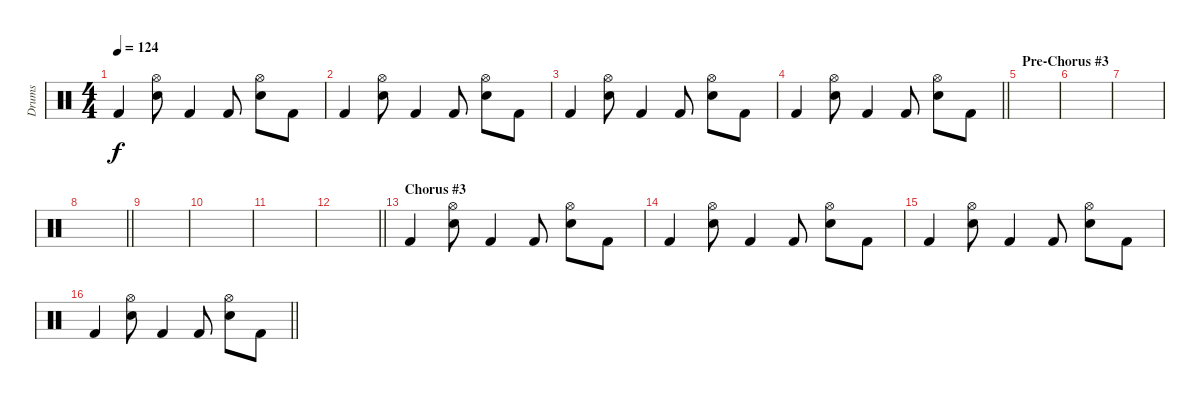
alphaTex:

\track ("Drums" "Drums") {instrument percussion}
\staff {score}
\articulation defaults
\ts (4 4)
\tempo 124
\clef neutral
\ks c "Kick (hit) 2".4{dy f}
("Hi-Hat (open)" "Snare (hit) 2").8 "Kick (hit) 2".4 "Kick (hit) 2".8 ("Hi-Hat (open)" "Snare (hit) 2").8 "Kick (hit) 2".8 |
"Kick (hit) 2".4 ("Hi-Hat (open)" "Snare (hit) 2").8 "Kick (hit) 2".4 "Kick (hit) 2".8 ("Hi-Hat (open)" "Snare (hit) 2").8 "Kick (hit) 2".8 |
"Kick (hit) 2".4 ("Hi-Hat (open)" "Snare (hit) 2").8 "Kick (hit) 2".4 "Kick (hit) 2".8 ("Hi-Hat (open)" "Snare (hit) 2").8 "Kick (hit) 2".8 |
\barLineRight lightlight "Kick (hit) 2".4
("Hi-Hat (open)" "Snare (hit) 2").8 "Kick (hit) 2".4 "Kick (hit) 2".8 ("Hi-Hat (open)" "Snare (hit) 2").8 "Kick (hit) 2".8 |
\section ("" "Pre-Chorus #3")
|
|
|
\barLineRight lightlight
|
|
|
|
\barLineRight lightlight
|
\section ("" "Chorus #3")
"Kick (hit) 2".4 ("Hi-Hat (open)" "Snare (hit) 2").8 "Kick (hit) 2".4 "Kick (hit) 2".8 ("Hi-Hat (open)" "Snare (hit) 2").8 "Kick (hit) 2".8 |
"Kick (hit) 2".4 ("Hi-Hat (open)" "Snare (hit) 2").8 "Kick (hit) 2".4 "Kick (hit) 2".8 ("Hi-Hat (open)" "Snare (hit) 2").8 "Kick (hit) 2".8 |
"Kick (hit) 2".4 ("Hi-Hat (open)" "Snare (hit) 2").8 "Kick (hit) 2".4 "Kick (hit) 2".8 ("Hi-Hat (open)" "Snare (hit) 2").8 "Kick (hit) 2".8 |
\barLineRight lightlight "Kick (hit) 2".4
("Hi-Hat (open)" "Snare (hit) 2").8 "Kick (hit) 2".4 "Kick (hit) 2".8 ("Hi-Hat (open)" "Snare (hit) 2").8 "Kick (hit) 2".8
